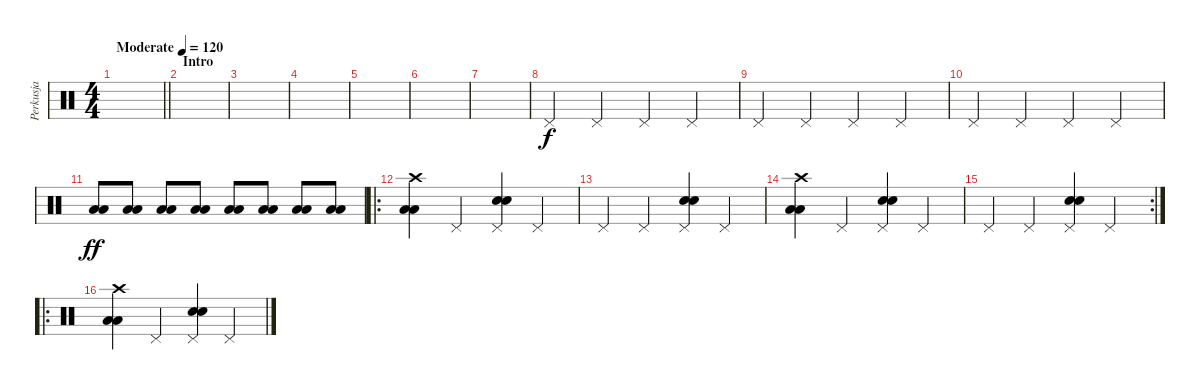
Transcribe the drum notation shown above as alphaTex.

\track ("Perkusja" "Perkusja") {instrument percussion}
\staff {score}
\articulation defaults
\ts (4 4)
\tempo (120 "Moderate")
\clef neutral
\barLineRight lightlight
\ks c
|
\section ("" "Intro")
|
|
|
|
|
|
"Pedal Hi-Hat (hit)".4 "Pedal Hi-Hat (hit)".4 "Pedal Hi-Hat (hit)".4 "Pedal Hi-Hat (hit)".4 |
"Pedal Hi-Hat (hit)".4 "Pedal Hi-Hat (hit)".4 "Pedal Hi-Hat (hit)".4 "Pedal Hi-Hat (hit)".4 |
"Pedal Hi-Hat (hit)".4{dy f} "Pedal Hi-Hat (hit)".4 "Pedal Hi-Hat (hit)".4 "Pedal Hi-Hat (hit)".4 |
("Low Tom (hit)" "Low Tom (hit)").8{dy ff} ("Low Tom (hit)" "Low Tom (hit)").8 ("Low Tom (hit)" "Low Tom (hit)").8 ("Low Tom (hit)" "Low Tom (hit)").8 ("Low Tom (hit)" "Low Tom (hit)").8 ("Low Tom (hit)" "Low Tom (hit)").8 ("Low Tom (hit)" "Low Tom (hit)").8 ("Low Tom (hit)" "Low Tom (hit)").8 |
\ro
("Low Tom (hit)" "Low Tom (hit)" "Crash high (hit)").4 "Pedal Hi-Hat (hit)".4 ("Pedal Hi-Hat (hit)" "Snare (hit) 2" "Snare (hit) 2").4 "Pedal Hi-Hat (hit)".4 |
"Pedal Hi-Hat (hit)".4 "Pedal Hi-Hat (hit)".4 ("Pedal Hi-Hat (hit)" "Snare (hit) 2" "Snare (hit) 2").4 "Pedal Hi-Hat (hit)".4 |
("Low Tom (hit)" "Low Tom (hit)" "Crash high (hit)").4 "Pedal Hi-Hat (hit)".4 ("Pedal Hi-Hat (hit)" "Snare (hit) 2" "Snare (hit) 2").4 "Pedal Hi-Hat (hit)".4 |
\rc 2 "Pedal Hi-Hat (hit)".4 "Pedal Hi-Hat (hit)".4
("Pedal Hi-Hat (hit)" "Snare (hit) 2" "Snare (hit) 2").4 "Pedal Hi-Hat (hit)".4 |
\ro
("Low Tom (hit)" "Low Tom (hit)" "Crash high (hit)").4 "Pedal Hi-Hat (hit)".4 ("Pedal Hi-Hat (hit)" "Snare (hit) 2" "Snare (hit) 2").4 "Pedal Hi-Hat (hit)".4
